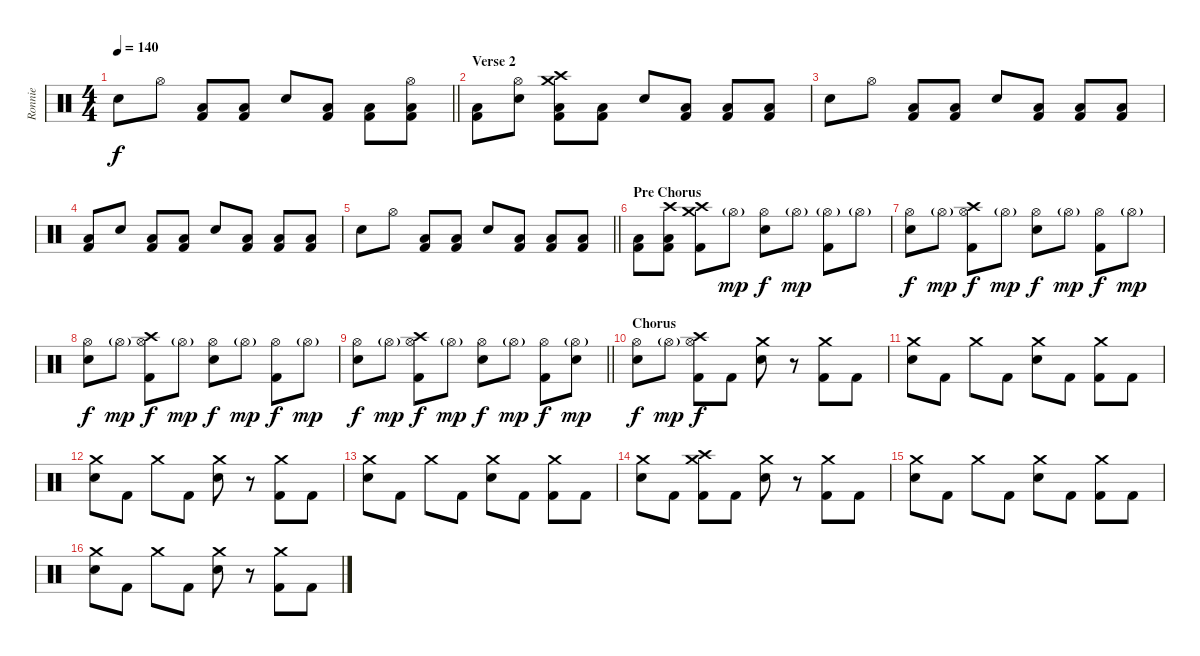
\track ("Ronnie" "Ronnie") {instrument percussion}
\staff {score}
\articulation defaults
\ts (4 4)
\tempo 140
\clef neutral
\barLineRight lightlight
\ks c "Electric Snare (hit)".8{dy f} "Hi-Hat (open)".8
("Low Tom (hit)" "Kick (hit) 2").8 ("Low Tom (hit)" "Kick (hit) 2").8 "Electric Snare (hit)".8 ("Low Tom (hit)" "Kick (hit) 2").8 ("Low Tom (hit)" "Kick (hit) 2").8 ("Hi-Hat (open)" "Low Tom (hit)" "Kick (hit) 2").8 |
\section ("" "Verse 2")
("Low Tom (hit)" "Kick (hit) 2").8 ("Hi-Hat (open)" "Electric Snare (hit)").8 ("Crash medium (hit)" "Crash high (hit)" "Low Tom (hit)" "Kick (hit) 2").8 ("Low Tom (hit)" "Kick (hit) 2").8 "Electric Snare (hit)".8 ("Low Tom (hit)" "Kick (hit) 2").8 ("Low Tom (hit)" "Kick (hit) 2").8 ("Low Tom (hit)" "Kick (hit) 2").8 |
"Electric Snare (hit)".8 "Hi-Hat (open)".8 ("Low Tom (hit)" "Kick (hit) 2").8 ("Low Tom (hit)" "Kick (hit) 2").8 "Electric Snare (hit)".8 ("Low Tom (hit)" "Kick (hit) 2").8 ("Low Tom (hit)" "Kick (hit) 2").8 ("Low Tom (hit)" "Kick (hit) 2").8 |
("Low Tom (hit)" "Kick (hit) 2").8 "Electric Snare (hit)".8 ("Low Tom (hit)" "Kick (hit) 2").8 ("Low Tom (hit)" "Kick (hit) 2").8 "Electric Snare (hit)".8 ("Low Tom (hit)" "Kick (hit) 2").8 ("Low Tom (hit)" "Kick (hit) 2").8 ("Low Tom (hit)" "Kick (hit) 2").8 |
\barLineRight lightlight "Electric Snare (hit)".8 "Hi-Hat (open)".8
("Low Tom (hit)" "Kick (hit) 2").8 ("Low Tom (hit)" "Kick (hit) 2").8 "Electric Snare (hit)".8 ("Low Tom (hit)" "Kick (hit) 2").8 ("Low Tom (hit)" "Kick (hit) 2").8 ("Low Tom (hit)" "Kick (hit) 2").8 |
\section ("" "Pre Chorus")
("Low Tom (hit)" "Kick (hit) 2").8 ("Crash high (hit)" "Low Tom (hit)" "Kick (hit) 2").8 ("Crash high (hit)" "Crash medium (hit)" "Kick (hit) 2").8 "Hi-Hat (open)"{g}.8{dy mp} ("Hi-Hat (open)" "Electric Snare (hit)").8{dy f} "Hi-Hat (open)"{g}.8{dy mp} ("Hi-Hat (open)"{g} "Kick (hit) 2").8 "Hi-Hat (open)"{g}.8 |
("Hi-Hat (open)" "Electric Snare (hit)").8{dy f} "Hi-Hat (open)"{g}.8{dy mp} ("Crash high (hit)" "Hi-Hat (open)" "Kick (hit) 2").8{dy f} "Hi-Hat (open)"{g}.8{dy mp} ("Hi-Hat (open)" "Electric Snare (hit)").8{dy f} "Hi-Hat (open)"{g}.8{dy mp} ("Hi-Hat (open)" "Kick (hit) 2").8{dy f} "Hi-Hat (open)"{g}.8{dy mp} |
("Hi-Hat (open)" "Electric Snare (hit)").8{dy f} "Hi-Hat (open)"{g}.8{dy mp} ("Crash high (hit)" "Hi-Hat (open)" "Kick (hit) 2").8{dy f} "Hi-Hat (open)"{g}.8{dy mp} ("Hi-Hat (open)" "Electric Snare (hit)").8{dy f} "Hi-Hat (open)"{g}.8{dy mp} ("Hi-Hat (open)" "Kick (hit) 2").8{dy f} "Hi-Hat (open)"{g}.8{dy mp} |
\barLineRight lightlight
("Hi-Hat (open)" "Electric Snare (hit)").8{dy f} "Hi-Hat (open)"{g}.8{dy mp} ("Crash high (hit)" "Hi-Hat (open)" "Kick (hit) 2").8{dy f} "Hi-Hat (open)"{g}.8{dy mp} ("Hi-Hat (open)" "Electric Snare (hit)").8{dy f} "Hi-Hat (open)"{g}.8{dy mp} ("Hi-Hat (open)" "Kick (hit) 2").8{dy f} ("Hi-Hat (open)"{g} "Electric Snare (hit)").8{dy mp} |
\section ("" "Chorus")
("Hi-Hat (open)" "Electric Snare (hit)").8{dy f} "Hi-Hat (open)"{g}.8{dy mp} ("Crash high (hit)" "Hi-Hat (open)" "Kick (hit) 2").8{dy f} "Kick (hit) 2".8 ("Crash medium (hit)" "Electric Snare (hit)").8 r.8 ("Crash medium (hit)" "Kick (hit) 2").8 "Kick (hit) 2".8 |
("Crash medium (hit)" "Electric Snare (hit)").8 "Kick (hit) 2".8 "Crash medium (hit)".8 "Kick (hit) 2".8 ("Crash medium (hit)" "Electric Snare (hit)").8 "Kick (hit) 2".8 ("Crash medium (hit)" "Kick (hit) 2").8 "Kick (hit) 2".8 |
("Crash medium (hit)" "Electric Snare (hit)").8 "Kick (hit) 2".8 "Crash medium (hit)".8 "Kick (hit) 2".8 ("Crash medium (hit)" "Electric Snare (hit)").8 r.8 ("Crash medium (hit)" "Kick (hit) 2").8 "Kick (hit) 2".8 |
("Crash medium (hit)" "Electric Snare (hit)").8 "Kick (hit) 2".8 "Crash medium (hit)".8 "Kick (hit) 2".8 ("Crash medium (hit)" "Electric Snare (hit)").8 "Kick (hit) 2".8 ("Crash medium (hit)" "Kick (hit) 2").8 "Kick (hit) 2".8 |
("Crash medium (hit)" "Electric Snare (hit)").8 "Kick (hit) 2".8 ("Crash medium (hit)" "Crash high (hit)" "Kick (hit) 2").8 "Kick (hit) 2".8 ("Crash medium (hit)" "Electric Snare (hit)").8 r.8 ("Crash medium (hit)" "Kick (hit) 2").8 "Kick (hit) 2".8 |
("Crash medium (hit)" "Electric Snare (hit)").8 "Kick (hit) 2".8 "Crash medium (hit)".8 "Kick (hit) 2".8 ("Crash medium (hit)" "Electric Snare (hit)").8 "Kick (hit) 2".8 ("Crash medium (hit)" "Kick (hit) 2").8 "Kick (hit) 2".8 |
("Crash medium (hit)" "Electric Snare (hit)").8 "Kick (hit) 2".8 "Crash medium (hit)".8 "Kick (hit) 2".8 ("Crash medium (hit)" "Electric Snare (hit)").8 r.8 ("Crash medium (hit)" "Kick (hit) 2").8 "Kick (hit) 2".8
